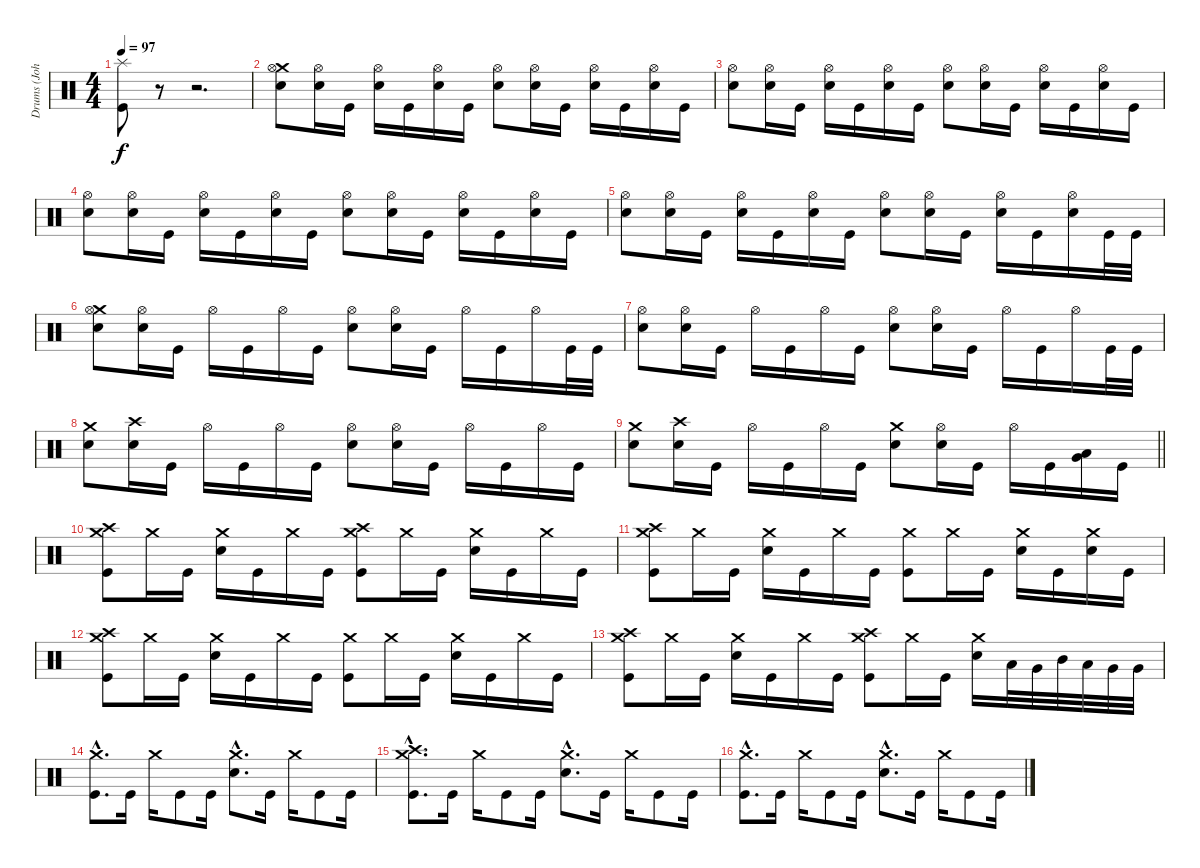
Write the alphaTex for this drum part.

\track ("Drums (John Ensminger)" "Drums (Joh") {instrument percussion}
\staff {score}
\articulation defaults
\ts (4 4)
\tempo 97
\clef neutral
\ks c
("Splash (hit)" "Kick (hit)").8{dy f} r.8 r.2{d} |
("Crash medium (hit)" "Hi-Hat (open)" "Electric Snare (hit)").8 ("Hi-Hat (open)" "Electric Snare (hit)").16 "Kick (hit)".16 ("Hi-Hat (open)" "Electric Snare (hit)").16 "Kick (hit)".16 ("Hi-Hat (open)" "Electric Snare (hit)").16 "Kick (hit)".16 ("Hi-Hat (open)" "Electric Snare (hit)").8 ("Hi-Hat (open)" "Electric Snare (hit)").16 "Kick (hit)".16 ("Hi-Hat (open)" "Electric Snare (hit)").16 "Kick (hit)".16 ("Hi-Hat (open)" "Electric Snare (hit)").16 "Kick (hit)".16 |
("Hi-Hat (open)" "Electric Snare (hit)").8 ("Hi-Hat (open)" "Electric Snare (hit)").16 "Kick (hit)".16 ("Hi-Hat (open)" "Electric Snare (hit)").16 "Kick (hit)".16 ("Hi-Hat (open)" "Electric Snare (hit)").16 "Kick (hit)".16 ("Hi-Hat (open)" "Electric Snare (hit)").8 ("Hi-Hat (open)" "Electric Snare (hit)").16 "Kick (hit)".16 ("Hi-Hat (open)" "Electric Snare (hit)").16 "Kick (hit)".16 ("Hi-Hat (open)" "Electric Snare (hit)").16 "Kick (hit)".16 |
("Hi-Hat (open)" "Electric Snare (hit)").8 ("Hi-Hat (open)" "Electric Snare (hit)").16 "Kick (hit)".16 ("Hi-Hat (open)" "Electric Snare (hit)").16 "Kick (hit)".16 ("Hi-Hat (open)" "Electric Snare (hit)").16 "Kick (hit)".16 ("Hi-Hat (open)" "Electric Snare (hit)").8 ("Hi-Hat (open)" "Electric Snare (hit)").16 "Kick (hit)".16 ("Hi-Hat (open)" "Electric Snare (hit)").16 "Kick (hit)".16 ("Hi-Hat (open)" "Electric Snare (hit)").16 "Kick (hit)".16 |
("Hi-Hat (open)" "Electric Snare (hit)").8 ("Hi-Hat (open)" "Electric Snare (hit)").16 "Kick (hit)".16 ("Hi-Hat (open)" "Electric Snare (hit)").16 "Kick (hit)".16 ("Hi-Hat (open)" "Electric Snare (hit)").16 "Kick (hit)".16 ("Hi-Hat (open)" "Electric Snare (hit)").8 ("Hi-Hat (open)" "Electric Snare (hit)").16 "Kick (hit)".16 ("Hi-Hat (open)" "Electric Snare (hit)").16 "Kick (hit)".16 ("Hi-Hat (open)" "Electric Snare (hit)").16 "Kick (hit)".32 "Kick (hit)".32 |
("Crash medium (hit)" "Hi-Hat (open)" "Electric Snare (hit)").8 ("Hi-Hat (open)" "Electric Snare (hit)").16 "Kick (hit)".16 "Hi-Hat (open)".16 "Kick (hit)".16 "Hi-Hat (open)".16 "Kick (hit)".16 ("Hi-Hat (open)" "Electric Snare (hit)").8 ("Hi-Hat (open)" "Electric Snare (hit)").16 "Kick (hit)".16 "Hi-Hat (open)".16 "Kick (hit)".16 "Hi-Hat (open)".16 "Kick (hit)".32 "Kick (hit)".32 |
("Hi-Hat (open)" "Electric Snare (hit)").8 ("Hi-Hat (open)" "Electric Snare (hit)").16 "Kick (hit)".16 "Hi-Hat (open)".16 "Kick (hit)".16 "Hi-Hat (open)".16 "Kick (hit)".16 ("Hi-Hat (open)" "Electric Snare (hit)").8 ("Hi-Hat (open)" "Electric Snare (hit)").16 "Kick (hit)".16 "Hi-Hat (open)".16 "Kick (hit)".16 "Hi-Hat (open)".16 "Kick (hit)".32 "Kick (hit)".32 |
("Crash medium (hit)" "Electric Snare (hit)").8 ("Crash high (hit)" "Electric Snare (hit)").16 "Kick (hit)".16 "Hi-Hat (open)".16 "Kick (hit)".16 "Hi-Hat (open)".16 "Kick (hit)".16 ("Hi-Hat (open)" "Electric Snare (hit)").8 ("Hi-Hat (open)" "Electric Snare (hit)").16 "Kick (hit)".16 "Hi-Hat (open)".16 "Kick (hit)".16 "Hi-Hat (open)".16 "Kick (hit)".16 |
\barLineRight lightlight
("Crash medium (hit)" "Electric Snare (hit)").8 ("Crash high (hit)" "Electric Snare (hit)").16 "Kick (hit)".16 "Hi-Hat (open)".16 "Kick (hit)".16 "Hi-Hat (open)".16 "Kick (hit)".16 ("Crash medium (hit)" "Electric Snare (hit)").8 ("Hi-Hat (open)" "Electric Snare (hit)").16 "Kick (hit)".16 "Hi-Hat (open)".16 "Kick (hit)".16 ("Low Tom (hit)" "Very Low Tom (hit)").16{bd 120} "Kick (hit)".16 |
("Crash medium (hit)" "Crash high (hit)" "Kick (hit)").8 "Crash medium (hit)".16 "Kick (hit)".16 ("Crash medium (hit)" "Electric Snare (hit)").16 "Kick (hit)".16 "Crash medium (hit)".16 "Kick (hit)".16 ("Crash medium (hit)" "Crash high (hit)" "Kick (hit)").8 "Crash medium (hit)".16 "Kick (hit)".16 ("Crash medium (hit)" "Electric Snare (hit)").16 "Kick (hit)".16 "Crash medium (hit)".16 "Kick (hit)".16 |
("Crash medium (hit)" "Crash high (hit)" "Kick (hit)").8 "Crash medium (hit)".16 "Kick (hit)".16 ("Crash medium (hit)" "Electric Snare (hit)").16 "Kick (hit)".16 "Crash medium (hit)".16 "Kick (hit)".16 ("Crash medium (hit)" "Kick (hit)").8 "Crash medium (hit)".16 "Kick (hit)".16 ("Crash medium (hit)" "Electric Snare (hit)").16 "Kick (hit)".16 ("Crash medium (hit)" "Electric Snare (hit)").16 "Kick (hit)".16 |
("Crash medium (hit)" "Crash high (hit)" "Kick (hit)").8 "Crash medium (hit)".16 "Kick (hit)".16 ("Crash medium (hit)" "Electric Snare (hit)").16 "Kick (hit)".16 "Crash medium (hit)".16 "Kick (hit)".16 ("Crash medium (hit)" "Kick (hit)").8 "Crash medium (hit)".16 "Kick (hit)".16 ("Crash medium (hit)" "Electric Snare (hit)").16 "Kick (hit)".16 "Crash medium (hit)".16 "Kick (hit)".16 |
("Crash medium (hit)" "Crash high (hit)" "Kick (hit)").8 "Crash medium (hit)".16 "Kick (hit)".16 ("Crash medium (hit)" "Electric Snare (hit)").16 "Kick (hit)".16 "Crash medium (hit)".16 "Kick (hit)".16 ("Crash medium (hit)" "Crash high (hit)" "Kick (hit)").8 "Crash medium (hit)".16 "Kick (hit)".16 ("Crash medium (hit)" "Electric Snare (hit)").16 "Low Tom (hit)".32 "Very Low Tom (hit)".32 "Mid Tom (hit)".32 "Low Tom (hit)".32 "Very Low Tom (hit)".32 "Very Low Tom (hit)".32 |
("Crash medium (hit)"{hac} "Kick (hit)"{hac}).8{d} "Kick (hit)".16 "Crash medium (hit)".16 "Kick (hit)".8 "Kick (hit)".16 ("Crash medium (hit)"{hac} "Electric Snare (hit)"{hac}).8{d} "Kick (hit)".16 "Crash medium (hit)".16 "Kick (hit)".8 "Kick (hit)".16 |
("Crash medium (hit)"{hac} "Crash high (hit)"{hac} "Kick (hit)"{hac}).8{d} "Kick (hit)".16 "Crash medium (hit)".16 "Kick (hit)".8 "Kick (hit)".16 ("Crash medium (hit)"{hac} "Electric Snare (hit)"{hac}).8{d} "Kick (hit)".16 "Crash medium (hit)".16 "Kick (hit)".8 "Kick (hit)".16 |
("Crash medium (hit)"{hac} "Kick (hit)"{hac}).8{d} "Kick (hit)".16 "Crash medium (hit)".16 "Kick (hit)".8 "Kick (hit)".16 ("Crash medium (hit)"{hac} "Electric Snare (hit)"{hac}).8{d} "Kick (hit)".16 "Crash medium (hit)".16 "Kick (hit)".8 "Kick (hit)".16
